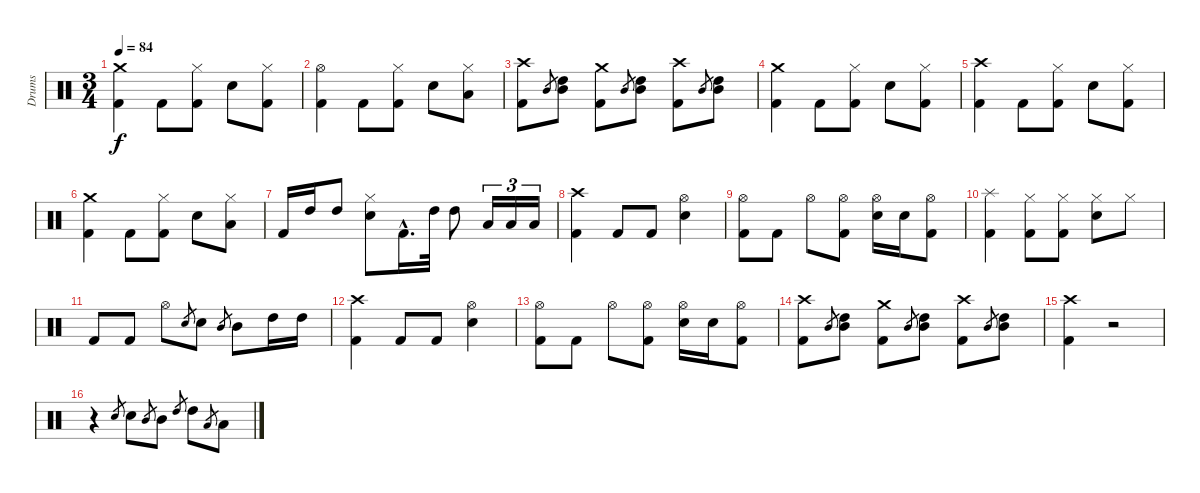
\track ("Drums" "Drums") {instrument percussion}
\staff {score}
\articulation defaults
\ts (3 4)
\tempo 84
\clef neutral
\ks c
("Kick (hit) 2" "Crash medium (hit)").4{dy f} "Kick (hit) 2".8 ("Kick (hit) 2" "Hi-Hat (closed)").8 "Snare (hit) 2".8 ("Kick (hit) 2" "Hi-Hat (closed)").8 |
("Kick (hit) 2" "Hi-Hat (open)").4 "Kick (hit) 2".8 ("Kick (hit) 2" "Hi-Hat (closed)").8 "Snare (hit) 2".8 ("Hi-Hat (closed)" "Low Tom (hit)").8 |
("Kick (hit) 2" "Crash high (hit)").8 "Mid Tom (hit)".8{gr} ("Mid Tom (hit)" "High Tom (hit)").8 ("Kick (hit) 2" "Crash medium (hit)").8 "Mid Tom (hit)".8{gr} ("Mid Tom (hit)" "High Tom (hit)").8 ("Kick (hit) 2" "Crash high (hit)").8 "Mid Tom (hit)".8{gr} ("Mid Tom (hit)" "High Tom (hit)").8 |
("Kick (hit) 2" "Crash medium (hit)").4 "Kick (hit) 2".8 ("Kick (hit) 2" "Hi-Hat (closed)").8 "Snare (hit) 2".8 ("Kick (hit) 2" "Hi-Hat (closed)").8 |
("Kick (hit) 2" "Crash high (hit)").4 "Kick (hit) 2".8 ("Kick (hit) 2" "Hi-Hat (closed)").8 "Snare (hit) 2".8 ("Kick (hit) 2" "Hi-Hat (closed)").8 |
("Kick (hit) 2" "Crash medium (hit)").4 "Kick (hit) 2".8 ("Kick (hit) 2" "Hi-Hat (closed)").8 "Snare (hit) 2".8 ("Hi-Hat (closed)" "Low Tom (hit)").8 |
"Kick (hit) 2".16 "High Tom (hit)".16 "High Tom (hit)".8 ("Snare (hit) 2" "Hi-Hat (closed)").8 "Kick (hit) 2"{hac}.16{d} "High Tom (hit)".32 "High Tom (hit)".8 "Low Tom (hit)".16{tu (3 2)} "Low Tom (hit)".16{tu (3 2)} "Low Tom (hit)".16{tu (3 2)} |
("Kick (hit) 2" "Crash high (hit)").4 "Kick (hit) 2".8 "Kick (hit) 2".8 ("Snare (hit) 2" "Hi-Hat (open)").4 |
("Kick (hit) 2" "Hi-Hat (open)").8 "Kick (hit) 2".8 "Hi-Hat (open)".8 ("Kick (hit) 2" "Hi-Hat (open)").8 ("Snare (hit) 2" "Hi-Hat (open)").16 "Snare (hit) 2".16 ("Kick (hit) 2" "Hi-Hat (open)").8 |
("Kick (hit) 2" "Splash (hit)").4 ("Kick (hit) 2" "Hi-Hat (closed)").8 ("Kick (hit) 2" "Hi-Hat (closed)").8 ("Snare (hit) 2" "Hi-Hat (closed)").8 "Hi-Hat (closed)".8 |
"Kick (hit) 2".8 "Kick (hit) 2".8 "Hi-Hat (open)".8 "Snare (hit) 2".8{gr} "Snare (hit) 2".8 "Mid Tom (hit)".8{gr} "Mid Tom (hit)".8 "High Tom (hit)".16 "High Tom (hit)".16 |
("Kick (hit) 2" "Crash high (hit)").4 "Kick (hit) 2".8 "Kick (hit) 2".8 ("Snare (hit) 2" "Hi-Hat (open)").4 |
("Kick (hit) 2" "Hi-Hat (open)").8 "Kick (hit) 2".8 "Hi-Hat (open)".8 ("Kick (hit) 2" "Hi-Hat (open)").8 ("Snare (hit) 2" "Hi-Hat (open)").16 "Snare (hit) 2".16 ("Kick (hit) 2" "Hi-Hat (open)").8 |
("Kick (hit) 2" "Crash high (hit)").8 "Mid Tom (hit)".8{gr} ("Mid Tom (hit)" "High Tom (hit)").8 ("Kick (hit) 2" "Crash medium (hit)").8 "Mid Tom (hit)".8{gr} ("Mid Tom (hit)" "High Tom (hit)").8 ("Kick (hit) 2" "Crash high (hit)").8 "Mid Tom (hit)".8{gr} ("Mid Tom (hit)" "High Tom (hit)").8 |
("Kick (hit) 2" "Crash high (hit)").4 r.2 |
r.4 "Snare (hit) 2".8{gr} "Snare (hit) 2".8 "Mid Tom (hit)".8{gr} "Mid Tom (hit)".8 "High Tom (hit)".8{gr} "High Tom (hit)".8 "Low Tom (hit)".8{gr} "Low Tom (hit)".8
